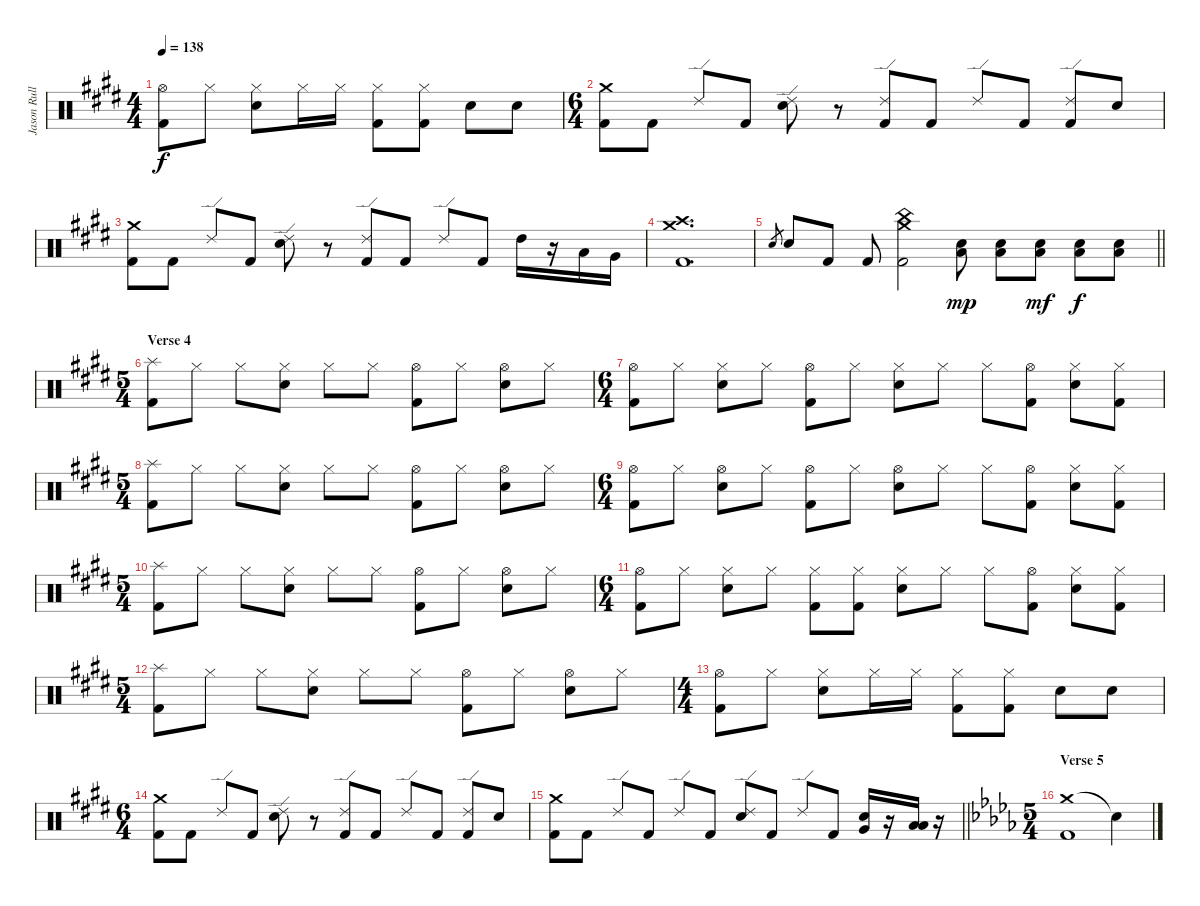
\track ("Jason Rullo (drums)" "Jason Rull") {instrument percussion}
\staff {score}
\articulation defaults
\ts (4 4)
\tempo 138
\clef neutral
\ks c#minor
("Hi-Hat (open)" "Kick (hit) 2").8{dy f} "Hi-Hat (closed)".8 ("Hi-Hat (closed)" "Electric Snare (hit)").8 "Hi-Hat (closed)".16 "Hi-Hat (closed)".16 ("Hi-Hat (closed)" "Kick (hit) 2").8 ("Hi-Hat (closed)" "Kick (hit) 2").8 "Electric Snare (hit)".8 "Electric Snare (hit)".8 |
\ts (6 4)
("Crash medium (hit)" "Kick (hit) 2").8 "Kick (hit) 2".8 "Ride (edge) 2".8 "Kick (hit) 2".8 ("Ride (edge) 2" "Electric Snare (hit)").8 r.8 ("Ride (edge) 2" "Kick (hit) 2").8 "Kick (hit) 2".8 "Ride (edge) 2".8 "Kick (hit) 2".8 ("Ride (edge) 2" "Kick (hit) 2").8 "Electric Snare (hit)".8 |
("Crash medium (hit)" "Kick (hit) 2").8 "Kick (hit) 2".8 "Ride (edge) 2".8 "Kick (hit) 2".8 ("Ride (edge) 2" "Electric Snare (hit)").8 r.8 ("Ride (edge) 2" "Kick (hit) 2").8 "Kick (hit) 2".8 "Ride (edge) 2".8 "Kick (hit) 2".8 "High Tom (hit)".16 r.16 "Low Tom (hit)".16 "Very Low Tom (hit)".16 |
("Crash high (hit)" "Crash medium (hit)" "Kick (hit) 2").1{d} |
\barLineRight lightlight "Electric Snare (hit)".8{gr} "Electric Snare (hit)".8 "Kick (hit) 2".8 "Kick (hit) 2".8
("China (hit)" "Crash medium (hit)" "Kick (hit) 2").2 ("Electric Snare (hit)" "Low Tom (hit)").8{dy mp} ("Electric Snare (hit)" "Low Tom (hit)").8 ("Electric Snare (hit)" "Low Tom (hit)").8{dy mf} ("Electric Snare (hit)" "Low Tom (hit)").8{dy f} ("Low Tom (hit)" "Electric Snare (hit)").8 |
\ts (5 4)
\section ("" "Verse 4")
("Splash (hit)" "Kick (hit) 2").8 "Hi-Hat (closed)".8 "Hi-Hat (closed)".8 ("Hi-Hat (closed)" "Electric Snare (hit)").8 "Hi-Hat (closed)".8 "Hi-Hat (closed)".8 ("Hi-Hat (open)" "Kick (hit) 2").8 "Hi-Hat (closed)".8 ("Hi-Hat (open)" "Electric Snare (hit)").8 "Hi-Hat (closed)".8 |
\ts (6 4)
("Hi-Hat (open)" "Kick (hit) 2").8 "Hi-Hat (closed)".8 ("Hi-Hat (closed)" "Electric Snare (hit)").8 "Hi-Hat (closed)".8 ("Hi-Hat (open)" "Kick (hit) 2").8 "Hi-Hat (closed)".8 ("Hi-Hat (closed)" "Electric Snare (hit)").8 "Hi-Hat (closed)".8 "Hi-Hat (closed)".8 ("Hi-Hat (open)" "Kick (hit) 2").8 ("Hi-Hat (closed)" "Electric Snare (hit)").8 ("Hi-Hat (closed)" "Kick (hit) 2").8 |
\ts (5 4)
("Splash (hit)" "Kick (hit) 2").8 "Hi-Hat (closed)".8 "Hi-Hat (closed)".8 ("Hi-Hat (closed)" "Electric Snare (hit)").8 "Hi-Hat (closed)".8 "Hi-Hat (closed)".8 ("Hi-Hat (open)" "Kick (hit) 2").8 "Hi-Hat (closed)".8 ("Hi-Hat (open)" "Electric Snare (hit)").8 "Hi-Hat (closed)".8 |
\ts (6 4)
("Hi-Hat (open)" "Kick (hit) 2").8 "Hi-Hat (closed)".8 ("Hi-Hat (open)" "Electric Snare (hit)").8 "Hi-Hat (closed)".8 ("Hi-Hat (open)" "Kick (hit) 2").8 "Hi-Hat (closed)".8 ("Hi-Hat (open)" "Electric Snare (hit)").8 "Hi-Hat (closed)".8 "Hi-Hat (closed)".8 ("Hi-Hat (open)" "Kick (hit) 2").8 ("Hi-Hat (closed)" "Electric Snare (hit)").8 ("Hi-Hat (closed)" "Kick (hit) 2").8 |
\ts (5 4)
("Splash (hit)" "Kick (hit) 2").8 "Hi-Hat (closed)".8 "Hi-Hat (closed)".8 ("Hi-Hat (closed)" "Electric Snare (hit)").8 "Hi-Hat (closed)".8 "Hi-Hat (closed)".8 ("Hi-Hat (open)" "Kick (hit) 2").8 "Hi-Hat (closed)".8 ("Hi-Hat (open)" "Electric Snare (hit)").8 "Hi-Hat (closed)".8 |
\ts (6 4)
("Hi-Hat (open)" "Kick (hit) 2").8 "Hi-Hat (closed)".8 ("Hi-Hat (closed)" "Electric Snare (hit)").8 "Hi-Hat (closed)".8 ("Hi-Hat (closed)" "Kick (hit) 2").8 ("Hi-Hat (closed)" "Kick (hit) 2").8 ("Hi-Hat (closed)" "Electric Snare (hit)").8 "Hi-Hat (closed)".8 "Hi-Hat (closed)".8 ("Hi-Hat (open)" "Kick (hit) 2").8 ("Hi-Hat (closed)" "Electric Snare (hit)").8 ("Hi-Hat (closed)" "Kick (hit) 2").8 |
\ts (5 4)
("Splash (hit)" "Kick (hit) 2").8 "Hi-Hat (closed)".8 "Hi-Hat (closed)".8 ("Hi-Hat (closed)" "Electric Snare (hit)").8 "Hi-Hat (closed)".8 "Hi-Hat (closed)".8 ("Hi-Hat (open)" "Kick (hit) 2").8 "Hi-Hat (closed)".8 ("Hi-Hat (open)" "Electric Snare (hit)").8 "Hi-Hat (closed)".8 |
\ts (4 4)
("Hi-Hat (open)" "Kick (hit) 2").8 "Hi-Hat (closed)".8 ("Hi-Hat (closed)" "Electric Snare (hit)").8 "Hi-Hat (closed)".16 "Hi-Hat (closed)".16 ("Hi-Hat (closed)" "Kick (hit) 2").8 ("Hi-Hat (closed)" "Kick (hit) 2").8 "Electric Snare (hit)".8 "Electric Snare (hit)".8 |
\ts (6 4)
("Crash medium (hit)" "Kick (hit) 2").8 "Kick (hit) 2".8 "Ride (edge) 2".8 "Kick (hit) 2".8 ("Ride (edge) 2" "Electric Snare (hit)").8 r.8 ("Ride (edge) 2" "Kick (hit) 2").8 "Kick (hit) 2".8 "Ride (edge) 2".8 "Kick (hit) 2".8 ("Ride (edge) 2" "Kick (hit) 2").8 "Electric Snare (hit)".8 |
\barLineRight lightlight
("Crash medium (hit)" "Kick (hit) 2").8 "Kick (hit) 2".8 "Ride (edge) 2".8 "Kick (hit) 2".8 "Ride (edge) 2".8 "Kick (hit) 2".8 ("Electric Snare (hit)" "Ride (edge) 2").8 "Kick (hit) 2".8 "Ride (edge) 2".8 "Kick (hit) 2".8 ("Very Low Tom (hit)" "Electric Snare (hit)").16 r.16 ("Low Floor Tom (hit)" "Low Tom (hit)").16 r.16 |
\ts (5 4)
\section ("" "Verse 5")
\ks bbminor
("Crash medium (hit)" "Kick (hit) 2").1 "Snare (hit)"{t}.4
